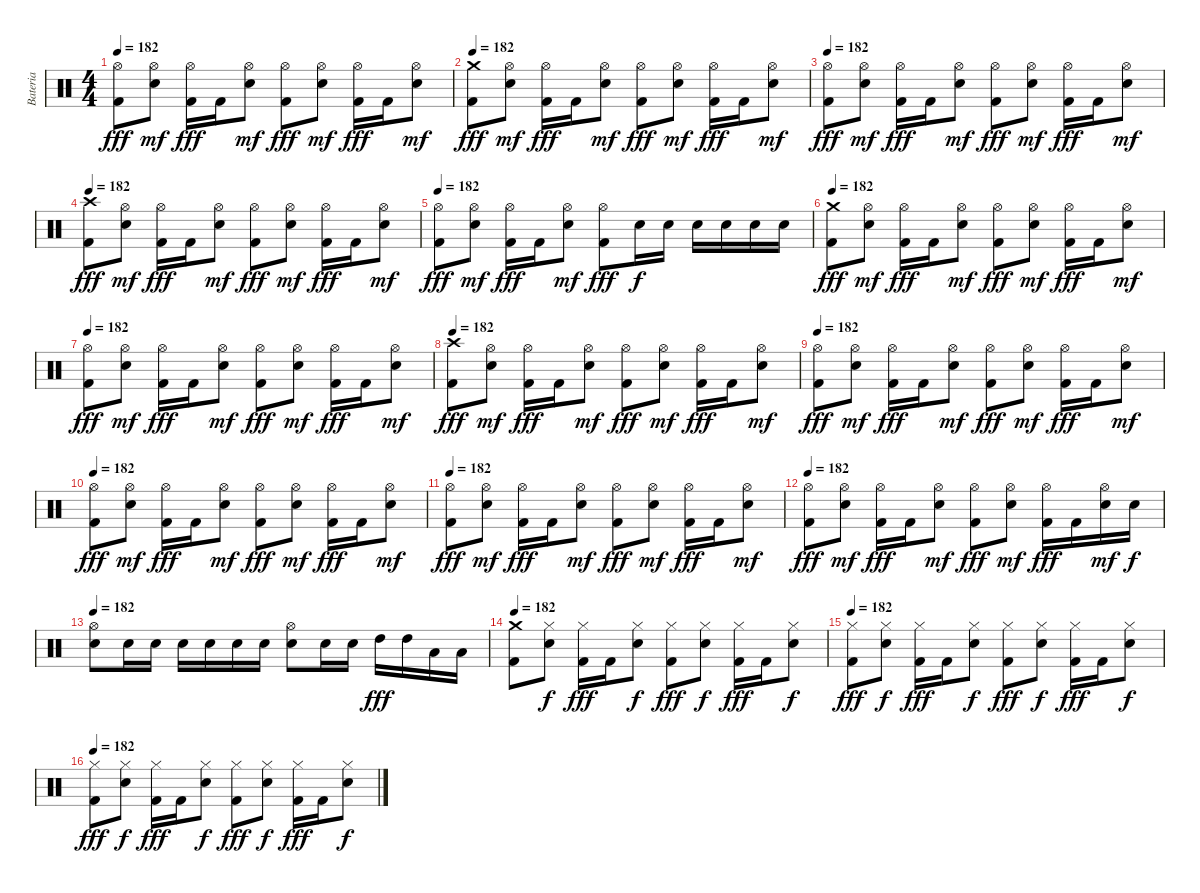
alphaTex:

\track ("Bateria" "Bateria") {instrument percussion}
\staff {score}
\articulation defaults
\ts (4 4)
\tempo 182
\clef neutral
\ks c
("Hi-Hat (open)" "Kick (hit) 2").8{dy fff} ("Hi-Hat (open)" "Electric Snare (hit)").8{dy mf} ("Hi-Hat (open)" "Kick (hit) 2").16{dy fff} "Kick (hit) 2".16 ("Hi-Hat (open)" "Electric Snare (hit)").8{dy mf} ("Hi-Hat (open)" "Kick (hit) 2").8{dy fff} ("Hi-Hat (open)" "Electric Snare (hit)").8{dy mf} ("Hi-Hat (open)" "Kick (hit) 2").16{dy fff} "Kick (hit) 2".16 ("Hi-Hat (open)" "Electric Snare (hit)").8{dy mf} |
\tempo 182
("Crash medium (hit)" "Kick (hit) 2").8{dy fff} ("Hi-Hat (open)" "Electric Snare (hit)").8{dy mf} ("Hi-Hat (open)" "Kick (hit) 2").16{dy fff} "Kick (hit) 2".16 ("Hi-Hat (open)" "Electric Snare (hit)").8{dy mf} ("Hi-Hat (open)" "Kick (hit) 2").8{dy fff} ("Hi-Hat (open)" "Electric Snare (hit)").8{dy mf} ("Hi-Hat (open)" "Kick (hit) 2").16{dy fff} "Kick (hit) 2".16 ("Hi-Hat (open)" "Electric Snare (hit)").8{dy mf} |
\tempo 182
("Hi-Hat (open)" "Kick (hit) 2").8{dy fff} ("Hi-Hat (open)" "Electric Snare (hit)").8{dy mf} ("Hi-Hat (open)" "Kick (hit) 2").16{dy fff} "Kick (hit) 2".16 ("Hi-Hat (open)" "Electric Snare (hit)").8{dy mf} ("Hi-Hat (open)" "Kick (hit) 2").8{dy fff} ("Hi-Hat (open)" "Electric Snare (hit)").8{dy mf} ("Hi-Hat (open)" "Kick (hit) 2").16{dy fff} "Kick (hit) 2".16 ("Hi-Hat (open)" "Electric Snare (hit)").8{dy mf} |
\tempo 182
("Crash high (hit)" "Kick (hit) 2").8{dy fff} ("Hi-Hat (open)" "Electric Snare (hit)").8{dy mf} ("Hi-Hat (open)" "Kick (hit) 2").16{dy fff} "Kick (hit) 2".16 ("Hi-Hat (open)" "Electric Snare (hit)").8{dy mf} ("Hi-Hat (open)" "Kick (hit) 2").8{dy fff} ("Hi-Hat (open)" "Electric Snare (hit)").8{dy mf} ("Hi-Hat (open)" "Kick (hit) 2").16{dy fff} "Kick (hit) 2".16 ("Hi-Hat (open)" "Electric Snare (hit)").8{dy mf} |
\tempo 182
("Hi-Hat (open)" "Kick (hit) 2").8{dy fff} ("Hi-Hat (open)" "Electric Snare (hit)").8{dy mf} ("Hi-Hat (open)" "Kick (hit) 2").16{dy fff} "Kick (hit) 2".16 ("Hi-Hat (open)" "Electric Snare (hit)").8{dy mf} ("Hi-Hat (open)" "Kick (hit) 2").8{dy fff} "Electric Snare (hit)".16{dy f} "Electric Snare (hit)".16 "Electric Snare (hit)".16 "Electric Snare (hit)".16 "Electric Snare (hit)".16 "Electric Snare (hit)".16 |
\tempo 182
("Crash medium (hit)" "Kick (hit) 2").8{dy fff} ("Hi-Hat (open)" "Electric Snare (hit)").8{dy mf} ("Hi-Hat (open)" "Kick (hit) 2").16{dy fff} "Kick (hit) 2".16 ("Hi-Hat (open)" "Electric Snare (hit)").8{dy mf} ("Hi-Hat (open)" "Kick (hit) 2").8{dy fff} ("Hi-Hat (open)" "Electric Snare (hit)").8{dy mf} ("Hi-Hat (open)" "Kick (hit) 2").16{dy fff} "Kick (hit) 2".16 ("Hi-Hat (open)" "Electric Snare (hit)").8{dy mf} |
\tempo 182
("Hi-Hat (open)" "Kick (hit) 2").8{dy fff} ("Hi-Hat (open)" "Electric Snare (hit)").8{dy mf} ("Hi-Hat (open)" "Kick (hit) 2").16{dy fff} "Kick (hit) 2".16 ("Hi-Hat (open)" "Electric Snare (hit)").8{dy mf} ("Hi-Hat (open)" "Kick (hit) 2").8{dy fff} ("Hi-Hat (open)" "Electric Snare (hit)").8{dy mf} ("Hi-Hat (open)" "Kick (hit) 2").16{dy fff} "Kick (hit) 2".16 ("Hi-Hat (open)" "Electric Snare (hit)").8{dy mf} |
\tempo 182
("Crash high (hit)" "Kick (hit) 2").8{dy fff} ("Hi-Hat (open)" "Electric Snare (hit)").8{dy mf} ("Hi-Hat (open)" "Kick (hit) 2").16{dy fff} "Kick (hit) 2".16 ("Hi-Hat (open)" "Electric Snare (hit)").8{dy mf} ("Hi-Hat (open)" "Kick (hit) 2").8{dy fff} ("Hi-Hat (open)" "Electric Snare (hit)").8{dy mf} ("Hi-Hat (open)" "Kick (hit) 2").16{dy fff} "Kick (hit) 2".16 ("Hi-Hat (open)" "Electric Snare (hit)").8{dy mf} |
\tempo 182
("Hi-Hat (open)" "Kick (hit) 2").8{dy fff} ("Hi-Hat (open)" "Electric Snare (hit)").8{dy mf} ("Hi-Hat (open)" "Kick (hit) 2").16{dy fff} "Kick (hit) 2".16 ("Hi-Hat (open)" "Electric Snare (hit)").8{dy mf} ("Hi-Hat (open)" "Kick (hit) 2").8{dy fff} ("Hi-Hat (open)" "Electric Snare (hit)").8{dy mf} ("Hi-Hat (open)" "Kick (hit) 2").16{dy fff} "Kick (hit) 2".16 ("Hi-Hat (open)" "Electric Snare (hit)").8{dy mf} |
\tempo 182
("Hi-Hat (open)" "Kick (hit) 2").8{dy fff} ("Hi-Hat (open)" "Electric Snare (hit)").8{dy mf} ("Hi-Hat (open)" "Kick (hit) 2").16{dy fff} "Kick (hit) 2".16 ("Hi-Hat (open)" "Electric Snare (hit)").8{dy mf} ("Hi-Hat (open)" "Kick (hit) 2").8{dy fff} ("Hi-Hat (open)" "Electric Snare (hit)").8{dy mf} ("Hi-Hat (open)" "Kick (hit) 2").16{dy fff} "Kick (hit) 2".16 ("Hi-Hat (open)" "Electric Snare (hit)").8{dy mf} |
\tempo 182
("Hi-Hat (open)" "Kick (hit) 2").8{dy fff} ("Hi-Hat (open)" "Electric Snare (hit)").8{dy mf} ("Hi-Hat (open)" "Kick (hit) 2").16{dy fff} "Kick (hit) 2".16 ("Hi-Hat (open)" "Electric Snare (hit)").8{dy mf} ("Hi-Hat (open)" "Kick (hit) 2").8{dy fff} ("Hi-Hat (open)" "Electric Snare (hit)").8{dy mf} ("Hi-Hat (open)" "Kick (hit) 2").16{dy fff} "Kick (hit) 2".16 ("Hi-Hat (open)" "Electric Snare (hit)").8{dy mf} |
\tempo 182
("Hi-Hat (open)" "Kick (hit) 2").8{dy fff} ("Hi-Hat (open)" "Electric Snare (hit)").8{dy mf} ("Hi-Hat (open)" "Kick (hit) 2").16{dy fff} "Kick (hit) 2".16 ("Hi-Hat (open)" "Electric Snare (hit)").8{dy mf} ("Hi-Hat (open)" "Kick (hit) 2").8{dy fff} ("Hi-Hat (open)" "Electric Snare (hit)").8{dy mf} ("Hi-Hat (open)" "Kick (hit) 2").16{dy fff} "Kick (hit) 2".16 ("Hi-Hat (open)" "Electric Snare (hit)").16{dy mf} "Electric Snare (hit)".16{dy f} |
\tempo 182
("Hi-Hat (open)" "Electric Snare (hit)").8 "Electric Snare (hit)".16 "Electric Snare (hit)".16 "Electric Snare (hit)".16 "Electric Snare (hit)".16 "Electric Snare (hit)".16 "Electric Snare (hit)".16 ("Hi-Hat (open)" "Electric Snare (hit)").8 "Electric Snare (hit)".16 "Electric Snare (hit)".16 "High Tom (hit)".16{dy fff} "High Tom (hit)".16 "Low Tom (hit)".16 "Low Tom (hit)".16 |
\tempo 182
("Crash medium (hit)" "Kick (hit) 2").8 ("Hi-Hat (closed)" "Electric Snare (hit)").8{dy f} ("Hi-Hat (closed)" "Kick (hit) 2").16{dy fff} "Kick (hit) 2".16 ("Hi-Hat (closed)" "Electric Snare (hit)").8{dy f} ("Hi-Hat (closed)" "Kick (hit) 2").8{dy fff} ("Hi-Hat (closed)" "Electric Snare (hit)").8{dy f} ("Hi-Hat (closed)" "Kick (hit) 2").16{dy fff} "Kick (hit) 2".16 ("Hi-Hat (closed)" "Electric Snare (hit)").8{dy f} |
\tempo 182
("Hi-Hat (closed)" "Kick (hit) 2").8{dy fff} ("Hi-Hat (closed)" "Electric Snare (hit)").8{dy f} ("Hi-Hat (closed)" "Kick (hit) 2").16{dy fff} "Kick (hit) 2".16 ("Hi-Hat (closed)" "Electric Snare (hit)").8{dy f} ("Hi-Hat (closed)" "Kick (hit) 2").8{dy fff} ("Hi-Hat (closed)" "Electric Snare (hit)").8{dy f} ("Hi-Hat (closed)" "Kick (hit) 2").16{dy fff} "Kick (hit) 2".16 ("Hi-Hat (closed)" "Electric Snare (hit)").8{dy f} |
\tempo 182
("Hi-Hat (closed)" "Kick (hit) 2").8{dy fff} ("Hi-Hat (closed)" "Electric Snare (hit)").8{dy f} ("Hi-Hat (closed)" "Kick (hit) 2").16{dy fff} "Kick (hit) 2".16 ("Hi-Hat (closed)" "Electric Snare (hit)").8{dy f} ("Hi-Hat (closed)" "Kick (hit) 2").8{dy fff} ("Hi-Hat (closed)" "Electric Snare (hit)").8{dy f} ("Hi-Hat (closed)" "Kick (hit) 2").16{dy fff} "Kick (hit) 2".16 ("Hi-Hat (closed)" "Electric Snare (hit)").8{dy f}
